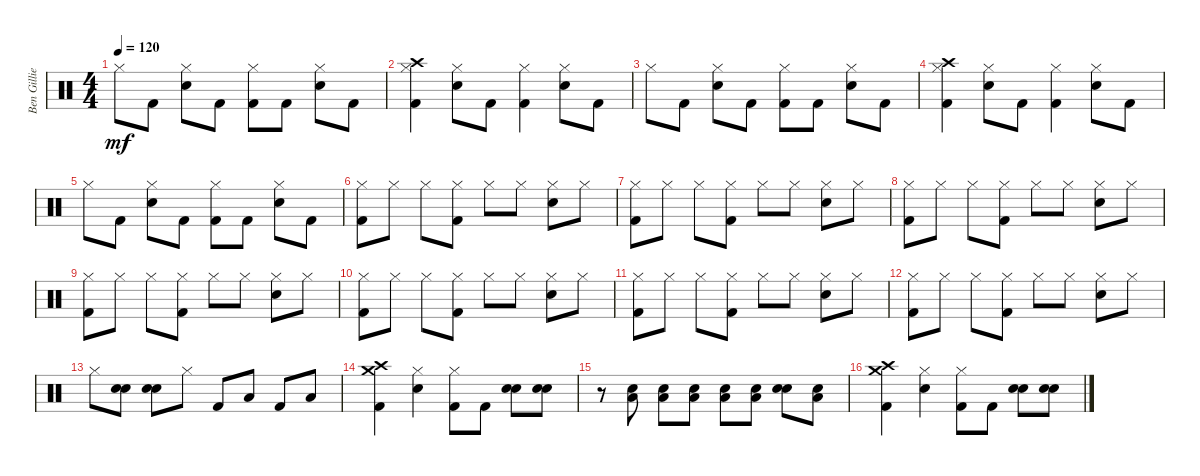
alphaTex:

\track ("Ben Gillies" "Ben Gillie") {instrument percussion}
\staff {score}
\articulation defaults
\ts (4 4)
\tempo 120
\clef neutral
\ks c "Hi-Hat (closed)".8{dy mf} "Kick (hit) 2".8
("Hi-Hat (closed)" "Electric Snare (hit)").8 "Kick (hit) 2".8 ("Hi-Hat (closed)" "Kick (hit) 2").8 "Kick (hit) 2".8 ("Hi-Hat (closed)" "Electric Snare (hit)").8 "Kick (hit) 2".8 |
("Crash high (hit)" "Hi-Hat (closed)" "Kick (hit) 2").4 ("Hi-Hat (closed)" "Electric Snare (hit)").8 "Kick (hit) 2".8 ("Hi-Hat (closed)" "Kick (hit) 2").4 ("Hi-Hat (closed)" "Electric Snare (hit)").8 "Kick (hit) 2".8 |
"Hi-Hat (closed)".8 "Kick (hit) 2".8 ("Hi-Hat (closed)" "Electric Snare (hit)").8 "Kick (hit) 2".8 ("Hi-Hat (closed)" "Kick (hit) 2").8 "Kick (hit) 2".8 ("Hi-Hat (closed)" "Electric Snare (hit)").8 "Kick (hit) 2".8 |
("Crash high (hit)" "Hi-Hat (closed)" "Kick (hit) 2").4 ("Hi-Hat (closed)" "Electric Snare (hit)").8 "Kick (hit) 2".8 ("Hi-Hat (closed)" "Kick (hit) 2").4 ("Hi-Hat (closed)" "Electric Snare (hit)").8 "Kick (hit) 2".8 |
"Hi-Hat (closed)".8 "Kick (hit) 2".8 ("Hi-Hat (closed)" "Electric Snare (hit)").8 "Kick (hit) 2".8 ("Hi-Hat (closed)" "Kick (hit) 2").8 "Kick (hit) 2".8 ("Hi-Hat (closed)" "Electric Snare (hit)").8 "Kick (hit) 2".8 |
("Hi-Hat (closed)" "Kick (hit) 2").8 "Hi-Hat (closed)".8 "Hi-Hat (closed)".8 ("Hi-Hat (closed)" "Kick (hit) 2").8 "Hi-Hat (closed)".8 "Hi-Hat (closed)".8 ("Hi-Hat (closed)" "Electric Snare (hit)").8 "Hi-Hat (closed)".8 |
("Hi-Hat (closed)" "Kick (hit) 2").8 "Hi-Hat (closed)".8 "Hi-Hat (closed)".8 ("Hi-Hat (closed)" "Kick (hit) 2").8 "Hi-Hat (closed)".8 "Hi-Hat (closed)".8 ("Hi-Hat (closed)" "Electric Snare (hit)").8 "Hi-Hat (closed)".8 |
("Hi-Hat (closed)" "Kick (hit) 2").8 "Hi-Hat (closed)".8 "Hi-Hat (closed)".8 ("Hi-Hat (closed)" "Kick (hit) 2").8 "Hi-Hat (closed)".8 "Hi-Hat (closed)".8 ("Hi-Hat (closed)" "Electric Snare (hit)").8 "Hi-Hat (closed)".8 |
("Hi-Hat (closed)" "Kick (hit) 2").8 "Hi-Hat (closed)".8 "Hi-Hat (closed)".8 ("Hi-Hat (closed)" "Kick (hit) 2").8 "Hi-Hat (closed)".8 "Hi-Hat (closed)".8 ("Hi-Hat (closed)" "Electric Snare (hit)").8 "Hi-Hat (closed)".8 |
("Hi-Hat (closed)" "Kick (hit) 2").8 "Hi-Hat (closed)".8 "Hi-Hat (closed)".8 ("Hi-Hat (closed)" "Kick (hit) 2").8 "Hi-Hat (closed)".8 "Hi-Hat (closed)".8 ("Hi-Hat (closed)" "Electric Snare (hit)").8 "Hi-Hat (closed)".8 |
("Hi-Hat (closed)" "Kick (hit) 2").8 "Hi-Hat (closed)".8 "Hi-Hat (closed)".8 ("Hi-Hat (closed)" "Kick (hit) 2").8 "Hi-Hat (closed)".8 "Hi-Hat (closed)".8 ("Hi-Hat (closed)" "Electric Snare (hit)").8 "Hi-Hat (closed)".8 |
("Hi-Hat (closed)" "Kick (hit) 2").8 "Hi-Hat (closed)".8 "Hi-Hat (closed)".8 ("Hi-Hat (closed)" "Kick (hit) 2").8 "Hi-Hat (closed)".8 "Hi-Hat (closed)".8 ("Hi-Hat (closed)" "Electric Snare (hit)").8 "Hi-Hat (closed)".8 |
"Hi-Hat (closed)".8 ("Electric Snare (hit)" "Electric Snare (hit)").8 ("Electric Snare (hit)" "Electric Snare (hit)").8 "Hi-Hat (closed)".8 "Kick (hit) 2".8 "Low Tom (hit)".8 "Kick (hit) 2".8 "Low Floor Tom (hit)".8 |
("Crash high (hit)" "Crash medium (hit)" "Kick (hit) 2").4 ("Hi-Hat (closed)" "Electric Snare (hit)").4 ("Hi-Hat (closed)" "Kick (hit) 2").8 "Kick (hit) 2".8 ("Electric Snare (hit)" "Electric Snare (hit)").8 ("Electric Snare (hit)" "Electric Snare (hit)").8 |
r.8 ("Low Floor Tom (hit)" "Electric Snare (hit)").8 ("Low Floor Tom (hit)" "Electric Snare (hit)").8 ("Low Floor Tom (hit)" "Electric Snare (hit)").8 ("Low Floor Tom (hit)" "Electric Snare (hit)").8 ("Low Floor Tom (hit)" "Electric Snare (hit)").8 ("Electric Snare (hit)" "Electric Snare (hit)").8 ("Low Floor Tom (hit)" "Electric Snare (hit)").8 |
("Crash high (hit)" "Crash medium (hit)" "Kick (hit) 2").4 ("Hi-Hat (closed)" "Electric Snare (hit)").4 ("Hi-Hat (closed)" "Kick (hit) 2").8 "Kick (hit) 2".8 ("Electric Snare (hit)" "Electric Snare (hit)").8 ("Electric Snare (hit)" "Electric Snare (hit)").8
